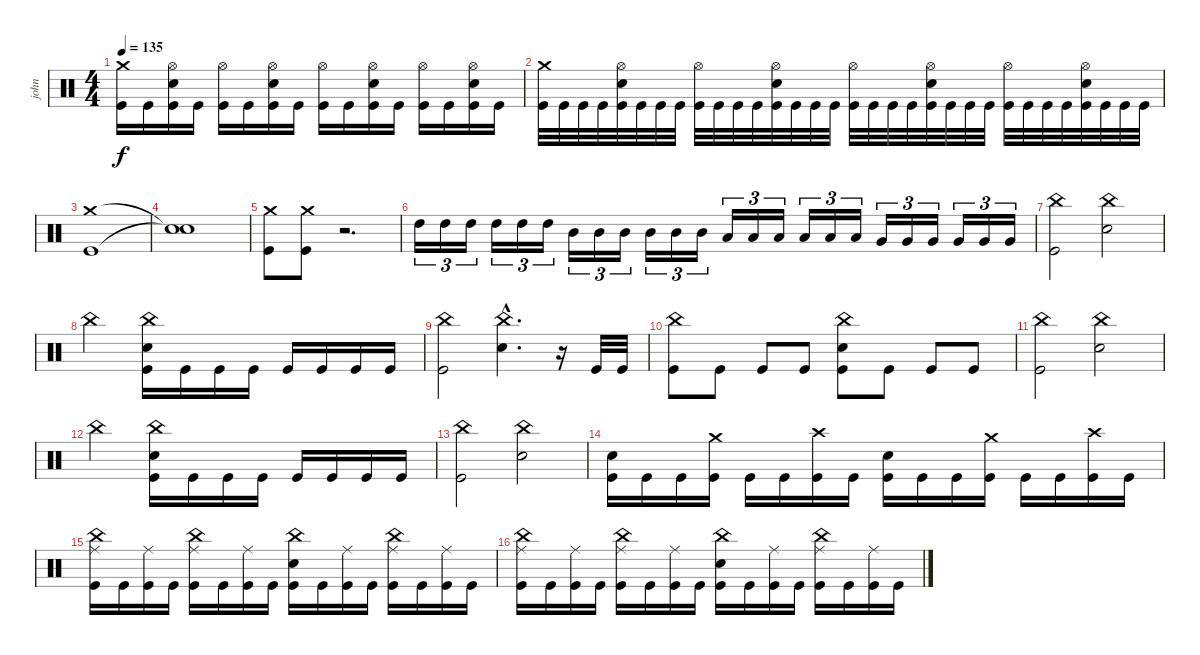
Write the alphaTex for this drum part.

\track ("john" "john") {instrument percussion}
\staff {score}
\articulation defaults
\ts (4 4)
\tempo 135
\clef neutral
\ks c
("Kick (hit)" "Crash medium (hit)").16{dy f} "Kick (hit)".16 ("Kick (hit)" "Hi-Hat (open)" "Snare (hit) 2").16 "Kick (hit)".16 ("Kick (hit)" "Hi-Hat (open)").16 "Kick (hit)".16 ("Kick (hit)" "Hi-Hat (open)" "Snare (hit) 2").16 "Kick (hit)".16 ("Kick (hit)" "Hi-Hat (open)").16 "Kick (hit)".16 ("Kick (hit)" "Snare (hit) 2" "Hi-Hat (open)").16 "Kick (hit)".16 ("Kick (hit)" "Hi-Hat (open)").16 "Kick (hit)".16 ("Kick (hit)" "Snare (hit) 2" "Hi-Hat (open)").16 "Kick (hit)".16 |
("Kick (hit)" "Crash medium (hit)").32 "Kick (hit)".32 "Kick (hit)".32 "Kick (hit)".32 ("Kick (hit)" "Snare (hit) 2" "Hi-Hat (open)").32 "Kick (hit)".32 "Kick (hit)".32 "Kick (hit)".32 ("Kick (hit)" "Hi-Hat (open)").32 "Kick (hit)".32 "Kick (hit)".32 "Kick (hit)".32 ("Kick (hit)" "Hi-Hat (open)" "Snare (hit) 2").32 "Kick (hit)".32 "Kick (hit)".32 "Kick (hit)".32 ("Kick (hit)" "Hi-Hat (open)").32 "Kick (hit)".32 "Kick (hit)".32 "Kick (hit)".32 ("Kick (hit)" "Hi-Hat (open)" "Snare (hit) 2").32 "Kick (hit)".32 "Kick (hit)".32 "Kick (hit)".32 ("Kick (hit)" "Hi-Hat (open)").32 "Kick (hit)".32 "Kick (hit)".32 "Kick (hit)".32 ("Kick (hit)" "Hi-Hat (open)" "Snare (hit) 2").32 "Kick (hit)".32 "Kick (hit)".32 "Kick (hit)".32 |
("Kick (hit)" "Crash medium (hit)").1 |
("Snare (hit)"{t} "Snare (hit)"{t}).1 |
("Kick (hit)" "Crash medium (hit)").8 ("Kick (hit)" "Crash medium (hit)").8 r.2{d} |
"High Tom (hit)".16{tu (3 2)} "High Tom (hit)".16{tu (3 2)} "High Tom (hit)".16{tu (3 2)} "High Tom (hit)".16{tu (3 2)} "High Tom (hit)".16{tu (3 2)} "High Tom (hit)".16{tu (3 2)} "Mid Tom (hit)".16{tu (3 2)} "Mid Tom (hit)".16{tu (3 2)} "Mid Tom (hit)".16{tu (3 2)} "Mid Tom (hit)".16{tu (3 2)} "Mid Tom (hit)".16{tu (3 2)} "Mid Tom (hit)".16{tu (3 2)} "Low Tom (hit)".16{tu (3 2)} "Low Tom (hit)".16{tu (3 2)} "Low Tom (hit)".16{tu (3 2)} "Low Tom (hit)".16{tu (3 2)} "Low Tom (hit)".16{tu (3 2)} "Low Tom (hit)".16{tu (3 2)} "Very Low Tom (hit)".16{tu (3 2)} "Very Low Tom (hit)".16{tu (3 2)} "Very Low Tom (hit)".16{tu (3 2)} "Very Low Tom (hit)".16{tu (3 2)} "Very Low Tom (hit)".16{tu (3 2)} "Very Low Tom (hit)".16{tu (3 2)} |
("Kick (hit)" "China (hit)").2 ("Snare (hit) 2" "China (hit)").2 |
"China (hit)".2 ("Kick (hit)" "Snare (hit) 2" "China (hit)").16 "Kick (hit)".16 "Kick (hit)".16 "Kick (hit)".16 "Kick (hit)".16 "Kick (hit)".16 "Kick (hit)".16 "Kick (hit)".16 |
("Kick (hit)" "China (hit)").2 ("Snare (hit) 2"{hac} "China (hit)"{hac}).4{d} r.16 "Kick (hit)".32 "Kick (hit)".32 |
("Kick (hit)" "China (hit)").8 "Kick (hit)".8 "Kick (hit)".8 "Kick (hit)".8 ("Kick (hit)" "Snare (hit) 2" "China (hit)").8 "Kick (hit)".8 "Kick (hit)".8 "Kick (hit)".8 |
("Kick (hit)" "China (hit)").2 ("Snare (hit) 2" "China (hit)").2 |
"China (hit)".2 ("Kick (hit)" "Snare (hit) 2" "China (hit)").16 "Kick (hit)".16 "Kick (hit)".16 "Kick (hit)".16 "Kick (hit)".16 "Kick (hit)".16 "Kick (hit)".16 "Kick (hit)".16 |
("Kick (hit)" "China (hit)").2 ("Snare (hit) 2" "China (hit)").2 |
("Kick (hit)" "Snare (hit) 2").16 "Kick (hit)".16 "Kick (hit)".16 ("Kick (hit)" "Crash medium (hit)").16 "Kick (hit)".16 "Kick (hit)".16 ("Kick (hit)" "Crash high (hit)").16 "Kick (hit)".16 ("Kick (hit)" "Snare (hit) 2").16 "Kick (hit)".16 "Kick (hit)".16 ("Kick (hit)" "Crash medium (hit)").16 "Kick (hit)".16 "Kick (hit)".16 ("Kick (hit)" "Crash high (hit)").16 "Kick (hit)".16 |
("Kick (hit)" "Ride (middle)" "China (hit)").16 "Kick (hit)".16 ("Kick (hit)" "Ride (middle)").16 "Kick (hit)".16 ("Kick (hit)" "Ride (middle)" "China (hit)").16 "Kick (hit)".16 ("Kick (hit)" "Ride (middle)").16 "Kick (hit)".16 ("Kick (hit)" "Snare (hit) 2" "China (hit)").16 "Kick (hit)".16 ("Kick (hit)" "Ride (middle)").16 "Kick (hit)".16 ("Kick (hit)" "Ride (middle)" "China (hit)").16 "Kick (hit)".16 ("Kick (hit)" "Ride (middle)").16 "Kick (hit)".16 |
("Kick (hit)" "Ride (middle)" "China (hit)").16 "Kick (hit)".16 ("Kick (hit)" "Ride (middle)").16 "Kick (hit)".16 ("Kick (hit)" "Ride (middle)" "China (hit)").16 "Kick (hit)".16 ("Kick (hit)" "Ride (middle)").16 "Kick (hit)".16 ("Kick (hit)" "Snare (hit) 2" "China (hit)").16 "Kick (hit)".16 ("Kick (hit)" "Ride (middle)").16 "Kick (hit)".16 ("Kick (hit)" "Ride (middle)" "China (hit)").16 "Kick (hit)".16 ("Kick (hit)" "Ride (middle)").16 "Kick (hit)".16
